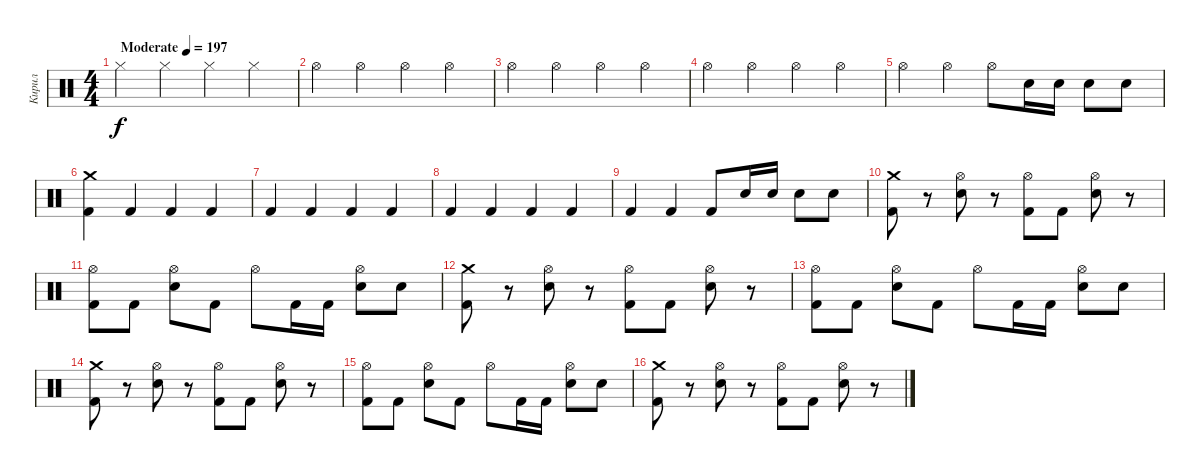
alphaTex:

\track ("Кирил" "Кирил") {instrument percussion}
\staff {score}
\articulation defaults
\ts (4 4)
\tempo (197 "Moderate")
\clef neutral
\ks c "Hi-Hat (closed)".4{dy f} "Hi-Hat (closed)".4 "Hi-Hat (closed)".4 "Hi-Hat (closed)".4
|
"Hi-Hat (open)".4 "Hi-Hat (open)".4 "Hi-Hat (open)".4 "Hi-Hat (open)".4 |
"Hi-Hat (open)".4 "Hi-Hat (open)".4 "Hi-Hat (open)".4 "Hi-Hat (open)".4 |
"Hi-Hat (open)".4 "Hi-Hat (open)".4 "Hi-Hat (open)".4 "Hi-Hat (open)".4 |
"Hi-Hat (open)".4 "Hi-Hat (open)".4 "Hi-Hat (open)".8 "Electric Snare (hit)".16 "Electric Snare (hit)".16 "Electric Snare (hit)".8 "Electric Snare (hit)".8 |
("Crash medium (hit)" "Kick (hit) 2").4 "Kick (hit) 2".4 "Kick (hit) 2".4 "Kick (hit) 2".4 |
"Kick (hit) 2".4 "Kick (hit) 2".4 "Kick (hit) 2".4 "Kick (hit) 2".4 |
"Kick (hit) 2".4 "Kick (hit) 2".4 "Kick (hit) 2".4 "Kick (hit) 2".4 |
"Kick (hit) 2".4 "Kick (hit) 2".4 "Kick (hit) 2".8 "Electric Snare (hit)".16 "Electric Snare (hit)".16 "Electric Snare (hit)".8 "Electric Snare (hit)".8 |
("Kick (hit) 2" "Crash medium (hit)").8 r.8 ("Electric Snare (hit)" "Hi-Hat (open)").8 r.8 ("Kick (hit) 2" "Hi-Hat (open)").8 "Kick (hit) 2".8 ("Electric Snare (hit)" "Hi-Hat (open)").8 r.8 |
("Kick (hit) 2" "Hi-Hat (open)").8 "Kick (hit) 2".8 ("Electric Snare (hit)" "Hi-Hat (open)").8 "Kick (hit) 2".8 "Hi-Hat (open)".8 "Kick (hit) 2".16 "Kick (hit) 2".16 ("Electric Snare (hit)" "Hi-Hat (open)").8 "Electric Snare (hit)".8 |
("Kick (hit) 2" "Crash medium (hit)").8 r.8 ("Electric Snare (hit)" "Hi-Hat (open)").8 r.8 ("Kick (hit) 2" "Hi-Hat (open)").8 "Kick (hit) 2".8 ("Electric Snare (hit)" "Hi-Hat (open)").8 r.8 |
("Kick (hit) 2" "Hi-Hat (open)").8 "Kick (hit) 2".8 ("Electric Snare (hit)" "Hi-Hat (open)").8 "Kick (hit) 2".8 "Hi-Hat (open)".8 "Kick (hit) 2".16 "Kick (hit) 2".16 ("Electric Snare (hit)" "Hi-Hat (open)").8 "Electric Snare (hit)".8 |
("Kick (hit) 2" "Crash medium (hit)").8 r.8 ("Electric Snare (hit)" "Hi-Hat (open)").8 r.8 ("Kick (hit) 2" "Hi-Hat (open)").8 "Kick (hit) 2".8 ("Electric Snare (hit)" "Hi-Hat (open)").8 r.8 |
("Kick (hit) 2" "Hi-Hat (open)").8 "Kick (hit) 2".8 ("Electric Snare (hit)" "Hi-Hat (open)").8 "Kick (hit) 2".8 "Hi-Hat (open)".8 "Kick (hit) 2".16 "Kick (hit) 2".16 ("Electric Snare (hit)" "Hi-Hat (open)").8 "Electric Snare (hit)".8 |
("Kick (hit) 2" "Crash medium (hit)").8 r.8 ("Electric Snare (hit)" "Hi-Hat (open)").8 r.8 ("Kick (hit) 2" "Hi-Hat (open)").8 "Kick (hit) 2".8 ("Electric Snare (hit)" "Hi-Hat (open)").8 r.8
